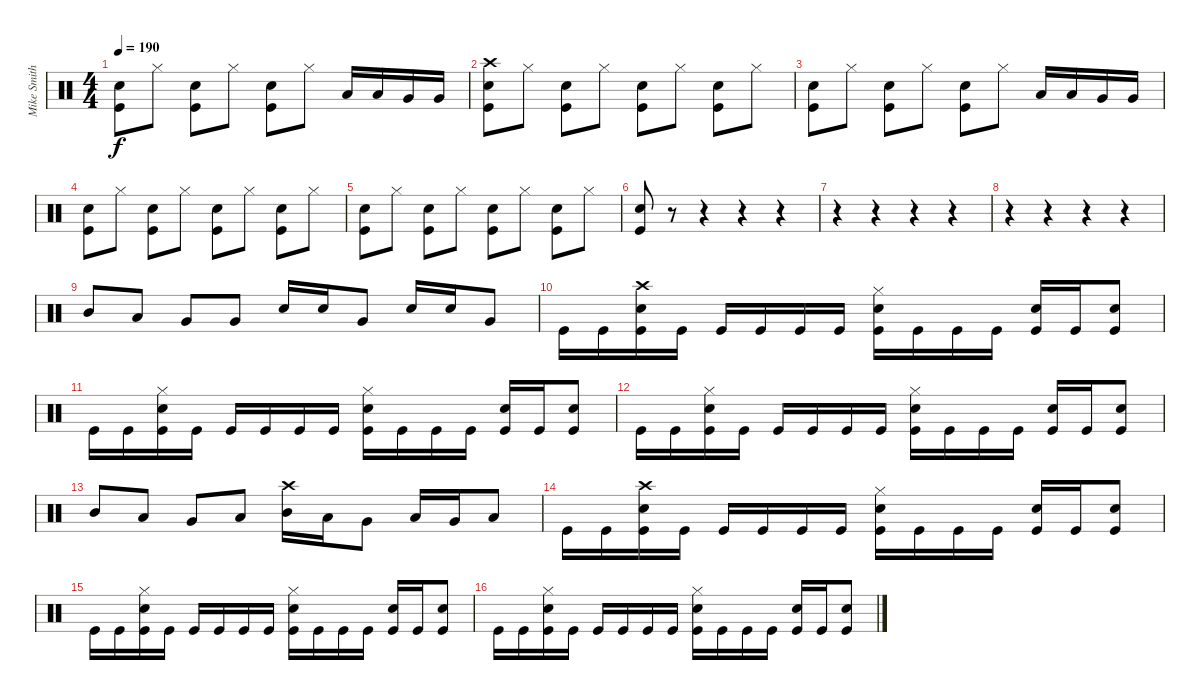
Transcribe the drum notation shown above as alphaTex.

\track ("Mike Smith" "Mike Smith") {instrument percussion}
\staff
\articulation defaults
\ts (4 4)
\tempo 190
\clef neutral
\ks c
("Snare (hit) 2" "Kick (hit)").8{dy f} "Hi-Hat (closed)".8 ("Snare (hit) 2" "Kick (hit)").8 "Hi-Hat (closed)".8 ("Snare (hit) 2" "Kick (hit)").8 "Hi-Hat (closed)".8 "Low Tom (hit)".16 "Low Tom (hit)".16 "Very Low Tom (hit)".16 "Very Low Tom (hit)".16 |
("Crash high (hit)" "Snare (hit) 2" "Kick (hit)").8 "Hi-Hat (closed)".8 ("Snare (hit) 2" "Kick (hit)").8 "Hi-Hat (closed)".8 ("Snare (hit) 2" "Kick (hit)").8 "Hi-Hat (closed)".8 ("Snare (hit) 2" "Kick (hit)").8 "Hi-Hat (closed)".8 |
("Snare (hit) 2" "Kick (hit)").8 "Hi-Hat (closed)".8 ("Snare (hit) 2" "Kick (hit)").8 "Hi-Hat (closed)".8 ("Snare (hit) 2" "Kick (hit)").8 "Hi-Hat (closed)".8 "Low Tom (hit)".16 "Low Tom (hit)".16 "Very Low Tom (hit)".16 "Very Low Tom (hit)".16 |
("Snare (hit) 2" "Kick (hit)").8 "Hi-Hat (closed)".8 ("Snare (hit) 2" "Kick (hit)").8 "Hi-Hat (closed)".8 ("Snare (hit) 2" "Kick (hit)").8 "Hi-Hat (closed)".8 ("Snare (hit) 2" "Kick (hit)").8 "Hi-Hat (closed)".8 |
("Snare (hit) 2" "Kick (hit)").8 "Hi-Hat (closed)".8 ("Snare (hit) 2" "Kick (hit)").8 "Hi-Hat (closed)".8 ("Snare (hit) 2" "Kick (hit)").8 "Hi-Hat (closed)".8 ("Snare (hit) 2" "Kick (hit)").8 "Hi-Hat (closed)".8 |
("Snare (hit) 2" "Kick (hit)").8 r.8 r.4 r.4 r.4 |
r.4 r.4 r.4 r.4 |
r.4 r.4 r.4 r.4 |
"Mid Tom (hit)".8 "Low Tom (hit)".8 "Very Low Tom (hit)".8 "Very Low Tom (hit)".8 "Snare (hit) 2".16 "Snare (hit) 2".16 "Very Low Tom (hit)".8 "Snare (hit) 2".16 "Snare (hit) 2".16 "Very Low Tom (hit)".8 |
"Kick (hit)".16 "Kick (hit)".16 ("Crash high (hit)" "Snare (hit) 2" "Kick (hit)").16 "Kick (hit)".16 "Kick (hit)".16 "Kick (hit)".16 "Kick (hit)".16 "Kick (hit)".16 ("Hi-Hat (closed)" "Snare (hit) 2" "Kick (hit)").16 "Kick (hit)".16 "Kick (hit)".16 "Kick (hit)".16 ("Snare (hit) 2" "Kick (hit)").16 "Kick (hit)".16 ("Snare (hit) 2" "Kick (hit)").8 |
"Kick (hit)".16 "Kick (hit)".16 ("Hi-Hat (closed)" "Snare (hit) 2" "Kick (hit)").16 "Kick (hit)".16 "Kick (hit)".16 "Kick (hit)".16 "Kick (hit)".16 "Kick (hit)".16 ("Hi-Hat (closed)" "Snare (hit) 2" "Kick (hit)").16 "Kick (hit)".16 "Kick (hit)".16 "Kick (hit)".16 ("Snare (hit) 2" "Kick (hit)").16 "Kick (hit)".16 ("Snare (hit) 2" "Kick (hit)").8 |
"Kick (hit)".16 "Kick (hit)".16 ("Hi-Hat (closed)" "Snare (hit) 2" "Kick (hit)").16 "Kick (hit)".16 "Kick (hit)".16 "Kick (hit)".16 "Kick (hit)".16 "Kick (hit)".16 ("Hi-Hat (closed)" "Snare (hit) 2" "Kick (hit)").16 "Kick (hit)".16 "Kick (hit)".16 "Kick (hit)".16 ("Snare (hit) 2" "Kick (hit)").16 "Kick (hit)".16 ("Snare (hit) 2" "Kick (hit)").8 |
"Mid Tom (hit)".8 "Low Tom (hit)".8 "Very Low Tom (hit)".8 "Low Floor Tom (hit)".8 ("Crash high (hit)" "Mid Tom (hit)").16 "Low Tom (hit)".16 "Very Low Tom (hit)".8 "Low Tom (hit)".16 "Very Low Tom (hit)".16 "Low Floor Tom (hit)".8 |
"Kick (hit)".16 "Kick (hit)".16 ("Crash high (hit)" "Snare (hit) 2" "Kick (hit)").16 "Kick (hit)".16 "Kick (hit)".16 "Kick (hit)".16 "Kick (hit)".16 "Kick (hit)".16 ("Hi-Hat (closed)" "Snare (hit) 2" "Kick (hit)").16 "Kick (hit)".16 "Kick (hit)".16 "Kick (hit)".16 ("Snare (hit) 2" "Kick (hit)").16 "Kick (hit)".16 ("Snare (hit) 2" "Kick (hit)").8 |
"Kick (hit)".16 "Kick (hit)".16 ("Hi-Hat (closed)" "Snare (hit) 2" "Kick (hit)").16 "Kick (hit)".16 "Kick (hit)".16 "Kick (hit)".16 "Kick (hit)".16 "Kick (hit)".16 ("Hi-Hat (closed)" "Snare (hit) 2" "Kick (hit)").16 "Kick (hit)".16 "Kick (hit)".16 "Kick (hit)".16 ("Snare (hit) 2" "Kick (hit)").16 "Kick (hit)".16 ("Snare (hit) 2" "Kick (hit)").8 |
"Kick (hit)".16 "Kick (hit)".16 ("Hi-Hat (closed)" "Snare (hit) 2" "Kick (hit)").16 "Kick (hit)".16 "Kick (hit)".16 "Kick (hit)".16 "Kick (hit)".16 "Kick (hit)".16 ("Hi-Hat (closed)" "Snare (hit) 2" "Kick (hit)").16 "Kick (hit)".16 "Kick (hit)".16 "Kick (hit)".16 ("Snare (hit) 2" "Kick (hit)").16 "Kick (hit)".16 ("Snare (hit) 2" "Kick (hit)").8
